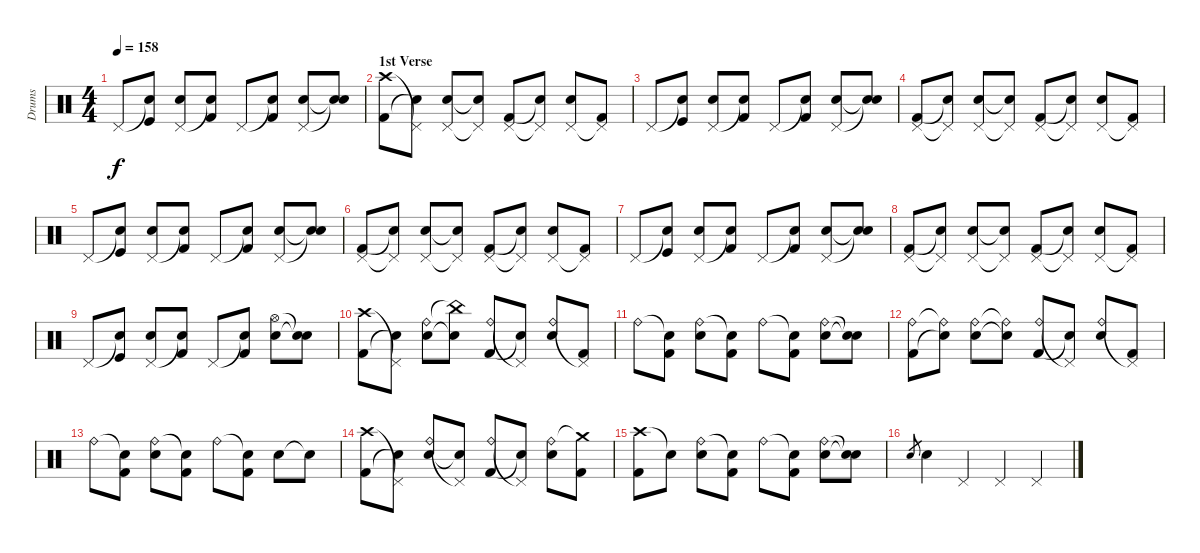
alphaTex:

\track ("Drums" "Drums") {instrument percussion}
\staff {score}
\articulation defaults
\ts (4 4)
\tempo 158
\clef neutral
\ks c "Pedal Hi-Hat (hit)".8{dy f}
("Snare (hit)"{t} "Kick (hit)").8 ("Pedal Hi-Hat (hit)" "Electric Snare (hit)").8 ("Snare (hit)"{t} "Kick (hit) 2").8 "Pedal Hi-Hat (hit)".8 ("Snare (hit)"{t} "Kick (hit) 2").8 ("Pedal Hi-Hat (hit)" "Electric Snare (hit)").8 ("Snare (hit)"{t} "Snare (hit)"{t}).8 |
\section ("" "1st Verse")
("Crash high (hit)" "Kick (hit) 2").8 ("Pedal Hi-Hat (hit)"{t} "Electric Snare (hit)"{t}).8 ("Pedal Hi-Hat (hit)" "Electric Snare (hit)").8 ("Pedal Hi-Hat (hit)"{t} "Snare (hit)"{t}).8 ("Pedal Hi-Hat (hit)" "Kick (hit) 2").8 ("Pedal Hi-Hat (hit)"{t} "Electric Snare (hit)"{t}).8 ("Pedal Hi-Hat (hit)" "Electric Snare (hit)").8 ("Pedal Hi-Hat (hit)"{t} "Kick (hit) 2").8 |
"Pedal Hi-Hat (hit)".8 ("Snare (hit)"{t} "Kick (hit)").8 ("Pedal Hi-Hat (hit)" "Electric Snare (hit)").8 ("Snare (hit)"{t} "Kick (hit) 2").8 "Pedal Hi-Hat (hit)".8 ("Snare (hit)"{t} "Kick (hit) 2").8 ("Pedal Hi-Hat (hit)" "Electric Snare (hit)").8 ("Snare (hit)"{t} "Snare (hit)"{t}).8 |
("Pedal Hi-Hat (hit)" "Kick (hit) 2").8 ("Pedal Hi-Hat (hit)"{t} "Electric Snare (hit)"{t}).8 ("Pedal Hi-Hat (hit)" "Electric Snare (hit)").8 ("Pedal Hi-Hat (hit)"{t} "Snare (hit)"{t}).8 ("Pedal Hi-Hat (hit)" "Kick (hit) 2").8 ("Pedal Hi-Hat (hit)"{t} "Electric Snare (hit)"{t}).8 ("Pedal Hi-Hat (hit)" "Electric Snare (hit)").8 ("Pedal Hi-Hat (hit)"{t} "Kick (hit) 2").8 |
"Pedal Hi-Hat (hit)".8 ("Snare (hit)"{t} "Kick (hit)").8 ("Pedal Hi-Hat (hit)" "Electric Snare (hit)").8 ("Snare (hit)"{t} "Kick (hit) 2").8 "Pedal Hi-Hat (hit)".8 ("Snare (hit)"{t} "Kick (hit) 2").8 ("Pedal Hi-Hat (hit)" "Electric Snare (hit)").8 ("Snare (hit)"{t} "Snare (hit)"{t}).8 |
("Pedal Hi-Hat (hit)" "Kick (hit) 2").8 ("Pedal Hi-Hat (hit)"{t} "Electric Snare (hit)"{t}).8 ("Pedal Hi-Hat (hit)" "Electric Snare (hit)").8 ("Pedal Hi-Hat (hit)"{t} "Snare (hit)"{t}).8 ("Pedal Hi-Hat (hit)" "Kick (hit) 2").8 ("Pedal Hi-Hat (hit)"{t} "Electric Snare (hit)"{t}).8 ("Pedal Hi-Hat (hit)" "Electric Snare (hit)").8 ("Pedal Hi-Hat (hit)"{t} "Kick (hit) 2").8 |
"Pedal Hi-Hat (hit)".8 ("Snare (hit)"{t} "Kick (hit)").8 ("Pedal Hi-Hat (hit)" "Electric Snare (hit)").8 ("Snare (hit)"{t} "Kick (hit) 2").8 "Pedal Hi-Hat (hit)".8 ("Snare (hit)"{t} "Kick (hit) 2").8 ("Pedal Hi-Hat (hit)" "Electric Snare (hit)").8 ("Snare (hit)"{t} "Snare (hit)"{t}).8 |
("Pedal Hi-Hat (hit)" "Kick (hit) 2").8 ("Pedal Hi-Hat (hit)"{t} "Electric Snare (hit)"{t}).8 ("Pedal Hi-Hat (hit)" "Electric Snare (hit)").8 ("Pedal Hi-Hat (hit)"{t} "Snare (hit)"{t}).8 ("Pedal Hi-Hat (hit)" "Kick (hit) 2").8 ("Pedal Hi-Hat (hit)"{t} "Electric Snare (hit)"{t}).8 ("Pedal Hi-Hat (hit)" "Electric Snare (hit)").8 ("Pedal Hi-Hat (hit)"{t} "Kick (hit) 2").8 |
"Pedal Hi-Hat (hit)".8 ("Snare (hit)"{t} "Kick (hit)").8 ("Pedal Hi-Hat (hit)" "Electric Snare (hit)").8 ("Snare (hit)"{t} "Kick (hit) 2").8 "Pedal Hi-Hat (hit)".8 ("Snare (hit)"{t} "Kick (hit) 2").8 ("Hi-Hat (open)" "Electric Snare (hit)").8 ("Snare (hit)"{t} "Snare (hit)"{t}).8 |
\section ("" "")
("Crash high (hit)" "Kick (hit) 2").8 ("Pedal Hi-Hat (hit)"{t} "Electric Snare (hit)"{t}).8 ("Ride (bell)" "Electric Snare (hit)").8 ("China (hit)"{t} "Snare (hit)"{t}).8 ("Ride (bell)" "Kick (hit) 2").8 ("Pedal Hi-Hat (hit)"{t} "Electric Snare (hit)"{t}).8 ("Ride (bell)" "Electric Snare (hit)").8 ("Pedal Hi-Hat (hit)"{t} "Kick (hit) 2").8 |
"Ride (bell)".8 ("Snare (hit)"{t} "Kick (hit) 2").8 ("Ride (bell)" "Electric Snare (hit)").8 ("Snare (hit)"{t} "Kick (hit) 2").8 "Ride (bell)".8 ("Snare (hit)"{t} "Kick (hit) 2").8 ("Ride (bell)" "Electric Snare (hit)").8 ("Snare (hit)"{t} "Snare (hit)"{t}).8 |
("Ride (bell)" "Kick (hit) 2").8 ("Ride (bell)"{t} "Electric Snare (hit)"{t}).8 ("Ride (bell)" "Electric Snare (hit)").8 ("Ride (bell)"{t} "Snare (hit)"{t}).8 ("Ride (bell)" "Kick (hit) 2").8 ("Pedal Hi-Hat (hit)"{t} "Electric Snare (hit)"{t}).8 ("Ride (bell)" "Electric Snare (hit)").8 ("Pedal Hi-Hat (hit)"{t} "Kick (hit) 2").8 |
"Ride (bell)".8 ("Snare (hit)"{t} "Kick (hit) 2").8 ("Ride (bell)" "Electric Snare (hit)").8 ("Snare (hit)"{t} "Kick (hit) 2").8 "Ride (bell)".8 ("Snare (hit)"{t} "Kick (hit) 2").8 "Electric Snare (hit)".8 "Snare (hit)"{t}.8 |
("Crash high (hit)" "Kick (hit) 2").8 ("Pedal Hi-Hat (hit)"{t} "Electric Snare (hit)"{t}).8 ("Ride (bell)" "Electric Snare (hit)").8 ("Pedal Hi-Hat (hit)"{t} "Snare (hit)"{t}).8 ("Ride (bell)" "Kick (hit) 2").8 ("Pedal Hi-Hat (hit)"{t} "Electric Snare (hit)"{t}).8 ("Ride (bell)" "Electric Snare (hit)").8 ("Crash medium (hit)"{t} "Kick (hit) 2").8 |
("Crash high (hit)" "Kick (hit) 2").8 "Snare (hit)"{t}.8 ("Ride (bell)" "Electric Snare (hit)").8 ("Snare (hit)"{t} "Kick (hit) 2").8 "Ride (bell)".8 ("Snare (hit)"{t} "Kick (hit) 2").8 ("Ride (bell)" "Electric Snare (hit)").8 ("Snare (hit)"{t} "Snare (hit)"{t}).8 |
"Electric Snare (hit)".8{gr} "Electric Snare (hit)".4 "Pedal Hi-Hat (hit)".4 "Pedal Hi-Hat (hit)".4 "Pedal Hi-Hat (hit)".4
